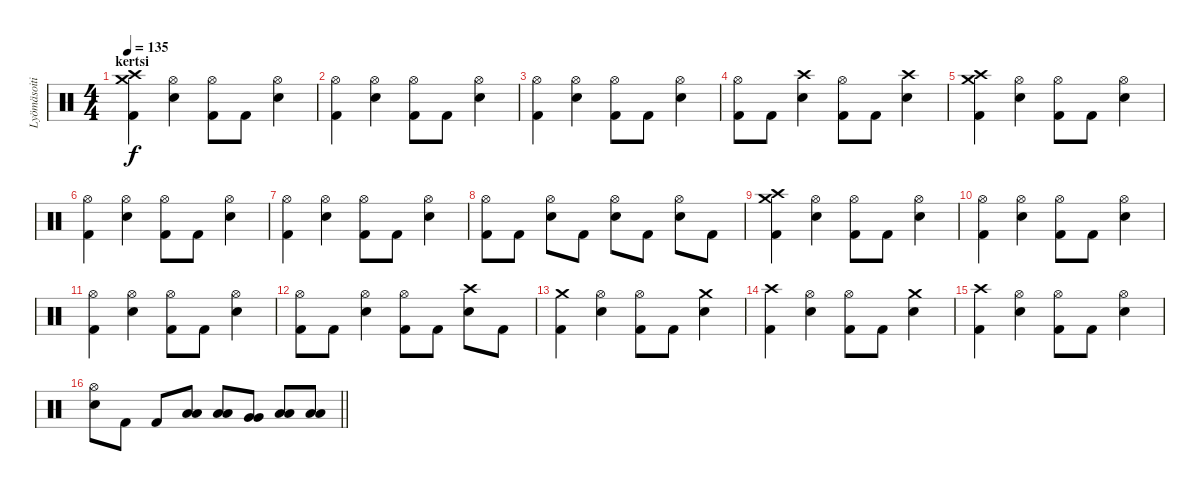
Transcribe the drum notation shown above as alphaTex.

\track ("Lyömäsoitin" "Lyömäsoiti") {instrument percussion}
\staff {score}
\articulation defaults
\ts (4 4)
\section ("" "kertsi")
\tempo 135
\clef neutral
\ks c
("Crash high (hit)" "Crash medium (hit)" "Kick (hit) 2").4{dy f} ("Hi-Hat (open)" "Electric Snare (hit)").4 ("Hi-Hat (open)" "Kick (hit) 2").8 "Kick (hit) 2".8 ("Hi-Hat (open)" "Electric Snare (hit)").4 |
("Hi-Hat (open)" "Kick (hit) 2").4 ("Hi-Hat (open)" "Electric Snare (hit)").4 ("Hi-Hat (open)" "Kick (hit) 2").8 "Kick (hit) 2".8 ("Hi-Hat (open)" "Electric Snare (hit)").4 |
("Hi-Hat (open)" "Kick (hit) 2").4 ("Hi-Hat (open)" "Electric Snare (hit)").4 ("Hi-Hat (open)" "Kick (hit) 2").8 "Kick (hit) 2".8 ("Hi-Hat (open)" "Electric Snare (hit)").4 |
("Hi-Hat (open)" "Kick (hit) 2").8 "Kick (hit) 2".8 ("Crash high (hit)" "Electric Snare (hit)").4 ("Hi-Hat (open)" "Kick (hit) 2").8 "Kick (hit) 2".8 ("Crash high (hit)" "Electric Snare (hit)").4 |
("Crash high (hit)" "Crash medium (hit)" "Kick (hit) 2").4 ("Hi-Hat (open)" "Electric Snare (hit)").4 ("Hi-Hat (open)" "Kick (hit) 2").8 "Kick (hit) 2".8 ("Hi-Hat (open)" "Electric Snare (hit)").4 |
("Hi-Hat (open)" "Kick (hit) 2").4 ("Hi-Hat (open)" "Electric Snare (hit)").4 ("Hi-Hat (open)" "Kick (hit) 2").8 "Kick (hit) 2".8 ("Hi-Hat (open)" "Electric Snare (hit)").4 |
("Hi-Hat (open)" "Kick (hit) 2").4 ("Hi-Hat (open)" "Electric Snare (hit)").4 ("Hi-Hat (open)" "Kick (hit) 2").8 "Kick (hit) 2".8 ("Hi-Hat (open)" "Electric Snare (hit)").4 |
("Hi-Hat (open)" "Kick (hit) 2").8 "Kick (hit) 2".8 ("Hi-Hat (open)" "Electric Snare (hit)").8 "Kick (hit) 2".8 ("Hi-Hat (open)" "Electric Snare (hit)").8 "Kick (hit) 2".8 ("Hi-Hat (open)" "Electric Snare (hit)").8 "Kick (hit) 2".8 |
("Crash high (hit)" "Crash medium (hit)" "Kick (hit) 2").4 ("Hi-Hat (open)" "Electric Snare (hit)").4 ("Hi-Hat (open)" "Kick (hit) 2").8 "Kick (hit) 2".8 ("Hi-Hat (open)" "Electric Snare (hit)").4 |
("Hi-Hat (open)" "Kick (hit) 2").4 ("Hi-Hat (open)" "Electric Snare (hit)").4 ("Hi-Hat (open)" "Kick (hit) 2").8 "Kick (hit) 2".8 ("Hi-Hat (open)" "Electric Snare (hit)").4 |
("Hi-Hat (open)" "Kick (hit) 2").4 ("Hi-Hat (open)" "Electric Snare (hit)").4 ("Hi-Hat (open)" "Kick (hit) 2").8 "Kick (hit) 2".8 ("Hi-Hat (open)" "Electric Snare (hit)").4 |
("Hi-Hat (open)" "Kick (hit) 2").8 "Kick (hit) 2".8 ("Hi-Hat (open)" "Electric Snare (hit)").4 ("Hi-Hat (open)" "Kick (hit) 2").8 "Kick (hit) 2".8 ("Crash high (hit)" "Electric Snare (hit)").8 "Kick (hit) 2".8 |
("Crash medium (hit)" "Kick (hit) 2").4 ("Hi-Hat (open)" "Electric Snare (hit)").4 ("Hi-Hat (open)" "Kick (hit) 2").8 "Kick (hit) 2".8 ("Crash medium (hit)" "Electric Snare (hit)").4 |
("Crash high (hit)" "Kick (hit) 2").4 ("Hi-Hat (open)" "Electric Snare (hit)").4 ("Hi-Hat (open)" "Kick (hit) 2").8 "Kick (hit) 2".8 ("Crash medium (hit)" "Electric Snare (hit)").4 |
("Crash high (hit)" "Kick (hit) 2").4 ("Hi-Hat (open)" "Electric Snare (hit)").4 ("Hi-Hat (open)" "Kick (hit) 2").8 "Kick (hit) 2".8 ("Hi-Hat (open)" "Electric Snare (hit)").4 |
\barLineRight lightlight
("Hi-Hat (open)" "Electric Snare (hit)").8 "Kick (hit) 2".8 "Kick (hit) 2".8 ("Low Tom (hit)" "Low Tom (hit)").8 ("Low Tom (hit)" "Low Tom (hit)").8 ("Very Low Tom (hit)" "Very Low Tom (hit)").8 ("Low Floor Tom (hit)" "Low Floor Tom (hit)").8 ("Low Floor Tom (hit)" "Low Floor Tom (hit)").8
